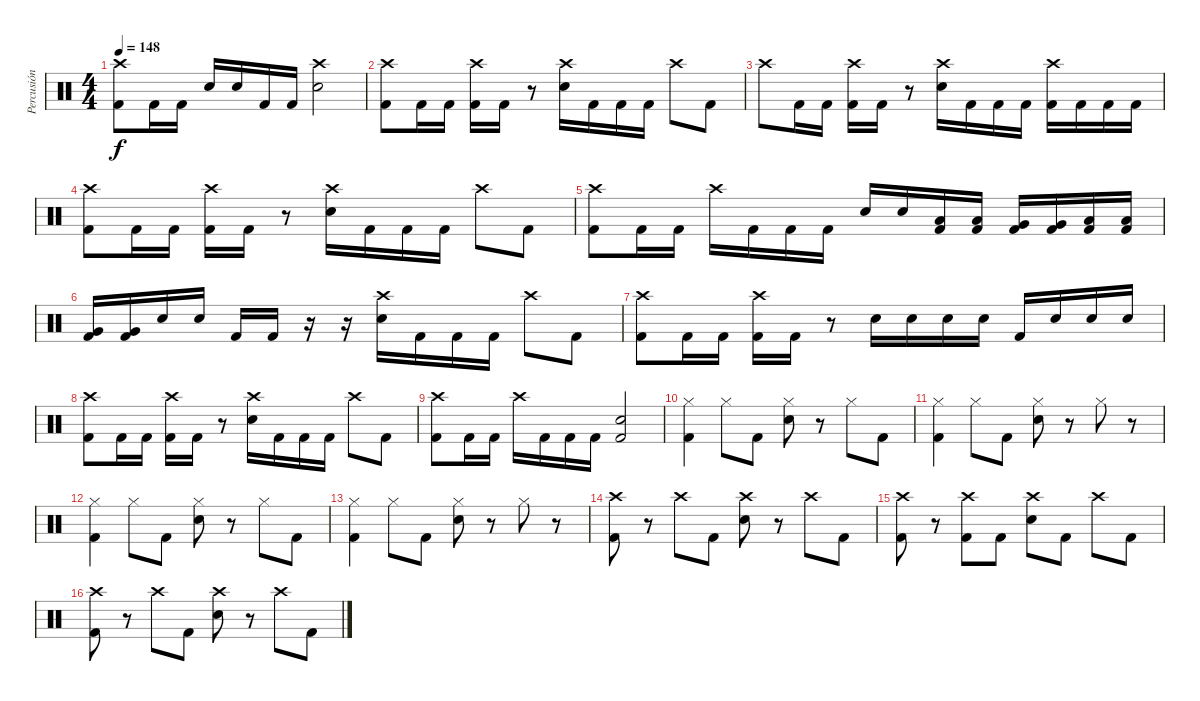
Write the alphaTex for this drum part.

\track ("Percusión" "Percusión") {instrument percussion}
\staff {score}
\articulation defaults
\ts (4 4)
\tempo 148
\clef neutral
\ks c
("Crash high (hit)" "Kick (hit) 2").8{dy f} "Kick (hit) 2".16 "Kick (hit) 2".16 "Electric Snare (hit)".16 "Electric Snare (hit)".16 "Kick (hit) 2".16 "Kick (hit) 2".16 ("Crash high (hit)" "Electric Snare (hit)").2 |
("Crash high (hit)" "Kick (hit) 2").8 "Kick (hit) 2".16 "Kick (hit) 2".16 ("Crash high (hit)" "Kick (hit) 2").16 "Kick (hit) 2".16 r.8 ("Crash high (hit)" "Electric Snare (hit)").16 "Kick (hit) 2".16 "Kick (hit) 2".16 "Kick (hit) 2".16 "Crash high (hit)".8 "Kick (hit) 2".8 |
"Crash high (hit)".8 "Kick (hit) 2".16 "Kick (hit) 2".16 ("Crash high (hit)" "Kick (hit) 2").16 "Kick (hit) 2".16 r.8 ("Crash high (hit)" "Electric Snare (hit)").16 "Kick (hit) 2".16 "Kick (hit) 2".16 "Kick (hit) 2".16 ("Crash high (hit)" "Kick (hit) 2").16 "Kick (hit) 2".16 "Kick (hit) 2".16 "Kick (hit) 2".16 |
("Crash high (hit)" "Kick (hit) 2").8 "Kick (hit) 2".16 "Kick (hit) 2".16 ("Crash high (hit)" "Kick (hit) 2").16 "Kick (hit) 2".16 r.8 ("Crash high (hit)" "Electric Snare (hit)").16 "Kick (hit) 2".16 "Kick (hit) 2".16 "Kick (hit) 2".16 "Crash high (hit)".8 "Kick (hit) 2".8 |
("Crash high (hit)" "Kick (hit) 2").8 "Kick (hit) 2".16 "Kick (hit) 2".16 "Crash high (hit)".16 "Kick (hit) 2".16 "Kick (hit) 2".16 "Kick (hit) 2".16 "Electric Snare (hit)".16 "Electric Snare (hit)".16 ("Low Tom (hit)" "Kick (hit) 2").16 ("Low Tom (hit)" "Kick (hit) 2").16 ("Very Low Tom (hit)" "Kick (hit) 2").16 ("Very Low Tom (hit)" "Kick (hit) 2").16 ("Low Floor Tom (hit)" "Kick (hit) 2").16 ("Low Floor Tom (hit)" "Kick (hit) 2").16 |
("Very Low Tom (hit)" "Kick (hit) 2").16 ("Very Low Tom (hit)" "Kick (hit) 2").16 "Electric Snare (hit)".16 "Electric Snare (hit)".16 "Kick (hit) 2".16 "Kick (hit) 2".16 r.16 r.16 ("Crash high (hit)" "Electric Snare (hit)").16 "Kick (hit) 2".16 "Kick (hit) 2".16 "Kick (hit) 2".16 "Crash high (hit)".8 "Kick (hit) 2".8 |
("Crash high (hit)" "Kick (hit) 2").8 "Kick (hit) 2".16 "Kick (hit) 2".16 ("Crash high (hit)" "Kick (hit) 2").16 "Kick (hit) 2".16 r.8 "Electric Snare (hit)".16 "Electric Snare (hit)".16 "Electric Snare (hit)".16 "Electric Snare (hit)".16 "Kick (hit) 2".16 "Electric Snare (hit)".16 "Electric Snare (hit)".16 "Electric Snare (hit)".16 |
("Crash high (hit)" "Kick (hit) 2").8 "Kick (hit) 2".16 "Kick (hit) 2".16 ("Crash high (hit)" "Kick (hit) 2").16 "Kick (hit) 2".16 r.8 ("Crash high (hit)" "Electric Snare (hit)").16 "Kick (hit) 2".16 "Kick (hit) 2".16 "Kick (hit) 2".16 "Crash high (hit)".8 "Kick (hit) 2".8 |
("Crash high (hit)" "Kick (hit) 2").8 "Kick (hit) 2".16 "Kick (hit) 2".16 "Crash high (hit)".16 "Kick (hit) 2".16 "Kick (hit) 2".16 "Kick (hit) 2".16 ("Electric Snare (hit)" "Kick (hit) 2").2 |
("Hi-Hat (closed)" "Kick (hit) 2").4 "Hi-Hat (closed)".8 "Kick (hit) 2".8 ("Hi-Hat (closed)" "Snare (hit) 2").8 r.8 "Hi-Hat (closed)".8 "Kick (hit) 2".8 |
("Hi-Hat (closed)" "Kick (hit) 2").4 "Hi-Hat (closed)".8 "Kick (hit) 2".8 ("Hi-Hat (closed)" "Snare (hit) 2").8 r.8 "Hi-Hat (closed)".8 r.8 |
("Hi-Hat (closed)" "Kick (hit) 2").4 "Hi-Hat (closed)".8 "Kick (hit) 2".8 ("Hi-Hat (closed)" "Snare (hit) 2").8 r.8 "Hi-Hat (closed)".8 "Kick (hit) 2".8 |
("Hi-Hat (closed)" "Kick (hit) 2").4 "Hi-Hat (closed)".8 "Kick (hit) 2".8 ("Hi-Hat (closed)" "Snare (hit) 2").8 r.8 "Hi-Hat (closed)".8 r.8 |
("Crash high (hit)" "Kick (hit) 2").8 r.8 "Crash high (hit)".8 "Kick (hit) 2".8 ("Crash high (hit)" "Electric Snare (hit)").8 r.8 "Crash high (hit)".8 "Kick (hit) 2".8 |
("Crash high (hit)" "Kick (hit) 2").8 r.8 ("Crash high (hit)" "Kick (hit) 2").8 "Kick (hit) 2".8 ("Crash high (hit)" "Electric Snare (hit)").8 "Kick (hit) 2".8 "Crash high (hit)".8 "Kick (hit) 2".8 |
("Crash high (hit)" "Kick (hit) 2").8 r.8 "Crash high (hit)".8 "Kick (hit) 2".8 ("Crash high (hit)" "Electric Snare (hit)").8 r.8 "Crash high (hit)".8 "Kick (hit) 2".8
